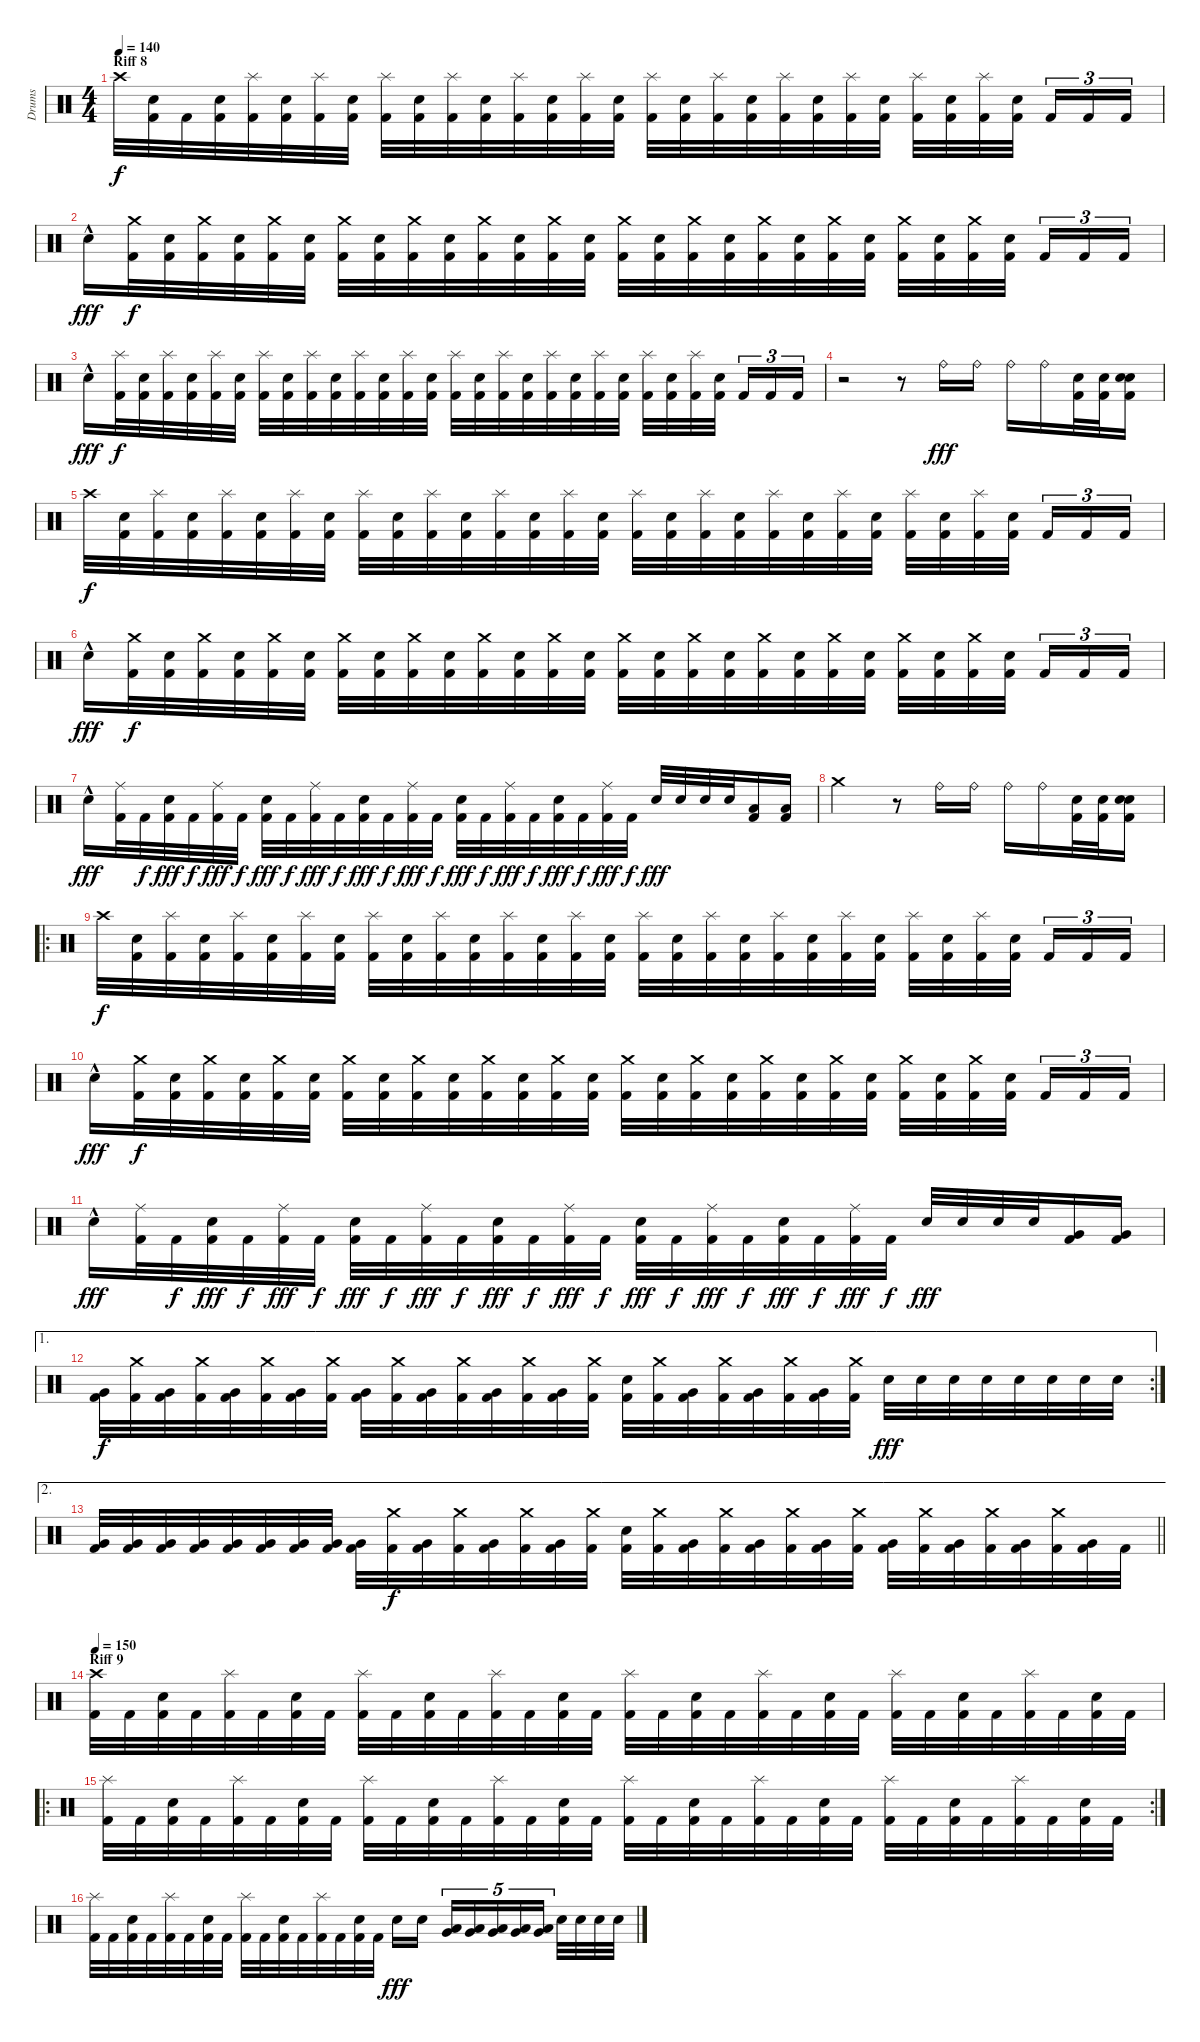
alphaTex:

\track ("Drums" "Drums") {instrument percussion}
\staff {score}
\articulation defaults
\ts (4 4)
\section ("" "Riff 8")
\tempo 140
\clef neutral
\ks c "Crash high (hit)".32{dy f}
("Electric Snare (hit)" "Kick (hit) 2").32 "Kick (hit) 2".32 ("Electric Snare (hit)" "Kick (hit) 2").32 ("Splash (hit)" "Kick (hit) 2").32 ("Electric Snare (hit)" "Kick (hit) 2").32 ("Splash (hit)" "Kick (hit) 2").32 ("Electric Snare (hit)" "Kick (hit) 2").32 ("Splash (hit)" "Kick (hit) 2").32 ("Electric Snare (hit)" "Kick (hit) 2").32 ("Splash (hit)" "Kick (hit) 2").32 ("Electric Snare (hit)" "Kick (hit) 2").32 ("Splash (hit)" "Kick (hit) 2").32 ("Electric Snare (hit)" "Kick (hit) 2").32 ("Splash (hit)" "Kick (hit) 2").32 ("Electric Snare (hit)" "Kick (hit) 2").32 ("Splash (hit)" "Kick (hit) 2").32 ("Electric Snare (hit)" "Kick (hit) 2").32 ("Splash (hit)" "Kick (hit) 2").32 ("Electric Snare (hit)" "Kick (hit) 2").32 ("Splash (hit)" "Kick (hit) 2").32 ("Electric Snare (hit)" "Kick (hit) 2").32 ("Splash (hit)" "Kick (hit) 2").32 ("Electric Snare (hit)" "Kick (hit) 2").32 ("Splash (hit)" "Kick (hit) 2").32 ("Electric Snare (hit)" "Kick (hit) 2").32 ("Splash (hit)" "Kick (hit) 2").32 ("Electric Snare (hit)" "Kick (hit) 2").32{beam splitsecondary} "Kick (hit) 2".16{tu (3 2)} "Kick (hit) 2".16{tu (3 2)} "Kick (hit) 2".16{tu (3 2)} |
"Electric Snare (hit)"{hac}.16{dy fff} ("Crash medium (hit)" "Kick (hit) 2").32{dy f} ("Electric Snare (hit)" "Kick (hit) 2").32 ("Crash medium (hit)" "Kick (hit) 2").32 ("Electric Snare (hit)" "Kick (hit) 2").32 ("Crash medium (hit)" "Kick (hit) 2").32 ("Electric Snare (hit)" "Kick (hit) 2").32 ("Crash medium (hit)" "Kick (hit) 2").32 ("Electric Snare (hit)" "Kick (hit) 2").32 ("Crash medium (hit)" "Kick (hit) 2").32 ("Electric Snare (hit)" "Kick (hit) 2").32 ("Crash medium (hit)" "Kick (hit) 2").32 ("Electric Snare (hit)" "Kick (hit) 2").32 ("Crash medium (hit)" "Kick (hit) 2").32 ("Electric Snare (hit)" "Kick (hit) 2").32 ("Crash medium (hit)" "Kick (hit) 2").32 ("Electric Snare (hit)" "Kick (hit) 2").32 ("Crash medium (hit)" "Kick (hit) 2").32 ("Electric Snare (hit)" "Kick (hit) 2").32 ("Crash medium (hit)" "Kick (hit) 2").32 ("Electric Snare (hit)" "Kick (hit) 2").32 ("Crash medium (hit)" "Kick (hit) 2").32 ("Electric Snare (hit)" "Kick (hit) 2").32 ("Crash medium (hit)" "Kick (hit) 2").32 ("Electric Snare (hit)" "Kick (hit) 2").32 ("Crash medium (hit)" "Kick (hit) 2").32 ("Electric Snare (hit)" "Kick (hit) 2").32{beam splitsecondary} "Kick (hit) 2".16{tu (3 2)} "Kick (hit) 2".16{tu (3 2)} "Kick (hit) 2".16{tu (3 2)} |
"Electric Snare (hit)"{hac}.16{dy fff} ("Splash (hit)" "Kick (hit) 2").32{dy f} ("Electric Snare (hit)" "Kick (hit) 2").32 ("Splash (hit)" "Kick (hit) 2").32 ("Electric Snare (hit)" "Kick (hit) 2").32 ("Splash (hit)" "Kick (hit) 2").32 ("Electric Snare (hit)" "Kick (hit) 2").32 ("Splash (hit)" "Kick (hit) 2").32 ("Electric Snare (hit)" "Kick (hit) 2").32 ("Splash (hit)" "Kick (hit) 2").32 ("Electric Snare (hit)" "Kick (hit) 2").32 ("Splash (hit)" "Kick (hit) 2").32 ("Electric Snare (hit)" "Kick (hit) 2").32 ("Splash (hit)" "Kick (hit) 2").32 ("Electric Snare (hit)" "Kick (hit) 2").32 ("Splash (hit)" "Kick (hit) 2").32 ("Electric Snare (hit)" "Kick (hit) 2").32 ("Splash (hit)" "Kick (hit) 2").32 ("Electric Snare (hit)" "Kick (hit) 2").32 ("Splash (hit)" "Kick (hit) 2").32 ("Electric Snare (hit)" "Kick (hit) 2").32 ("Splash (hit)" "Kick (hit) 2").32 ("Electric Snare (hit)" "Kick (hit) 2").32 ("Splash (hit)" "Kick (hit) 2").32 ("Electric Snare (hit)" "Kick (hit) 2").32 ("Splash (hit)" "Kick (hit) 2").32 ("Electric Snare (hit)" "Kick (hit) 2").32{beam splitsecondary} "Kick (hit) 2".16{tu (3 2)} "Kick (hit) 2".16{tu (3 2)} "Kick (hit) 2".16{tu (3 2)} |
r.2 r.8 "Ride (bell)".16{dy fff} "Ride (bell)".16 "Ride (bell)".16 "Ride (bell)".16 ("Electric Snare (hit)" "Kick (hit) 2").32 ("Electric Snare (hit)" "Kick (hit) 2").32 ("Electric Snare (hit)" "Electric Snare (hit)" "Kick (hit) 2").16 |
"Crash high (hit)".32{dy f} ("Electric Snare (hit)" "Kick (hit) 2").32 ("Splash (hit)" "Kick (hit) 2").32 ("Electric Snare (hit)" "Kick (hit) 2").32 ("Splash (hit)" "Kick (hit) 2").32 ("Electric Snare (hit)" "Kick (hit) 2").32 ("Splash (hit)" "Kick (hit) 2").32 ("Electric Snare (hit)" "Kick (hit) 2").32 ("Splash (hit)" "Kick (hit) 2").32 ("Electric Snare (hit)" "Kick (hit) 2").32 ("Splash (hit)" "Kick (hit) 2").32 ("Electric Snare (hit)" "Kick (hit) 2").32 ("Splash (hit)" "Kick (hit) 2").32 ("Electric Snare (hit)" "Kick (hit) 2").32 ("Splash (hit)" "Kick (hit) 2").32 ("Electric Snare (hit)" "Kick (hit) 2").32 ("Splash (hit)" "Kick (hit) 2").32 ("Electric Snare (hit)" "Kick (hit) 2").32 ("Splash (hit)" "Kick (hit) 2").32 ("Electric Snare (hit)" "Kick (hit) 2").32 ("Splash (hit)" "Kick (hit) 2").32 ("Electric Snare (hit)" "Kick (hit) 2").32 ("Splash (hit)" "Kick (hit) 2").32 ("Electric Snare (hit)" "Kick (hit) 2").32 ("Splash (hit)" "Kick (hit) 2").32 ("Electric Snare (hit)" "Kick (hit) 2").32 ("Splash (hit)" "Kick (hit) 2").32 ("Electric Snare (hit)" "Kick (hit) 2").32{beam splitsecondary} "Kick (hit) 2".16{tu (3 2)} "Kick (hit) 2".16{tu (3 2)} "Kick (hit) 2".16{tu (3 2)} |
"Electric Snare (hit)"{hac}.16{dy fff} ("Crash medium (hit)" "Kick (hit) 2").32{dy f} ("Electric Snare (hit)" "Kick (hit) 2").32 ("Crash medium (hit)" "Kick (hit) 2").32 ("Electric Snare (hit)" "Kick (hit) 2").32 ("Crash medium (hit)" "Kick (hit) 2").32 ("Electric Snare (hit)" "Kick (hit) 2").32 ("Crash medium (hit)" "Kick (hit) 2").32 ("Electric Snare (hit)" "Kick (hit) 2").32 ("Crash medium (hit)" "Kick (hit) 2").32 ("Electric Snare (hit)" "Kick (hit) 2").32 ("Crash medium (hit)" "Kick (hit) 2").32 ("Electric Snare (hit)" "Kick (hit) 2").32 ("Crash medium (hit)" "Kick (hit) 2").32 ("Electric Snare (hit)" "Kick (hit) 2").32 ("Crash medium (hit)" "Kick (hit) 2").32 ("Electric Snare (hit)" "Kick (hit) 2").32 ("Crash medium (hit)" "Kick (hit) 2").32 ("Electric Snare (hit)" "Kick (hit) 2").32 ("Crash medium (hit)" "Kick (hit) 2").32 ("Electric Snare (hit)" "Kick (hit) 2").32 ("Crash medium (hit)" "Kick (hit) 2").32 ("Electric Snare (hit)" "Kick (hit) 2").32 ("Crash medium (hit)" "Kick (hit) 2").32 ("Electric Snare (hit)" "Kick (hit) 2").32 ("Crash medium (hit)" "Kick (hit) 2").32 ("Electric Snare (hit)" "Kick (hit) 2").32{beam splitsecondary} "Kick (hit) 2".16{tu (3 2)} "Kick (hit) 2".16{tu (3 2)} "Kick (hit) 2".16{tu (3 2)} |
"Electric Snare (hit)"{hac}.16{dy fff} ("Ride (middle)" "Kick (hit) 2").32 "Kick (hit) 2".32{dy f} ("Electric Snare (hit)" "Kick (hit) 2").32{dy fff} "Kick (hit) 2".32{dy f} ("Ride (middle)" "Kick (hit) 2").32{dy fff} "Kick (hit) 2".32{dy f} ("Electric Snare (hit)" "Kick (hit) 2").32{dy fff} "Kick (hit) 2".32{dy f} ("Ride (middle)" "Kick (hit) 2").32{dy fff} "Kick (hit) 2".32{dy f} ("Electric Snare (hit)" "Kick (hit) 2").32{dy fff} "Kick (hit) 2".32{dy f} ("Ride (middle)" "Kick (hit) 2").32{dy fff} "Kick (hit) 2".32{dy f} ("Electric Snare (hit)" "Kick (hit) 2").32{dy fff} "Kick (hit) 2".32{dy f} ("Ride (middle)" "Kick (hit) 2").32{dy fff} "Kick (hit) 2".32{dy f} ("Electric Snare (hit)" "Kick (hit) 2").32{dy fff} "Kick (hit) 2".32{dy f} ("Ride (middle)" "Kick (hit) 2").32{dy fff} "Kick (hit) 2".32{dy f} "Electric Snare (hit)".32{dy fff} "Electric Snare (hit)".32 "Electric Snare (hit)".32 "Electric Snare (hit)".32 ("Low Tom (hit)" "Kick (hit) 2").16 ("Low Tom (hit)" "Kick (hit) 2").16 |
"Crash medium (hit)".2 r.8 "Ride (bell)".16 "Ride (bell)".16 "Ride (bell)".16 "Ride (bell)".16 ("Electric Snare (hit)" "Kick (hit) 2").32 ("Electric Snare (hit)" "Kick (hit) 2").32 ("Electric Snare (hit)" "Electric Snare (hit)" "Kick (hit) 2").16 |
\ro "Crash high (hit)".32{dy f}
("Electric Snare (hit)" "Kick (hit) 2").32 ("Splash (hit)" "Kick (hit) 2").32 ("Electric Snare (hit)" "Kick (hit) 2").32 ("Splash (hit)" "Kick (hit) 2").32 ("Electric Snare (hit)" "Kick (hit) 2").32 ("Splash (hit)" "Kick (hit) 2").32 ("Electric Snare (hit)" "Kick (hit) 2").32 ("Splash (hit)" "Kick (hit) 2").32 ("Electric Snare (hit)" "Kick (hit) 2").32 ("Splash (hit)" "Kick (hit) 2").32 ("Electric Snare (hit)" "Kick (hit) 2").32 ("Splash (hit)" "Kick (hit) 2").32 ("Electric Snare (hit)" "Kick (hit) 2").32 ("Splash (hit)" "Kick (hit) 2").32 ("Electric Snare (hit)" "Kick (hit) 2").32 ("Splash (hit)" "Kick (hit) 2").32 ("Electric Snare (hit)" "Kick (hit) 2").32 ("Splash (hit)" "Kick (hit) 2").32 ("Electric Snare (hit)" "Kick (hit) 2").32 ("Splash (hit)" "Kick (hit) 2").32 ("Electric Snare (hit)" "Kick (hit) 2").32 ("Splash (hit)" "Kick (hit) 2").32 ("Electric Snare (hit)" "Kick (hit) 2").32 ("Splash (hit)" "Kick (hit) 2").32 ("Electric Snare (hit)" "Kick (hit) 2").32 ("Splash (hit)" "Kick (hit) 2").32 ("Electric Snare (hit)" "Kick (hit) 2").32{beam splitsecondary} "Kick (hit) 2".16{tu (3 2)} "Kick (hit) 2".16{tu (3 2)} "Kick (hit) 2".16{tu (3 2)} |
"Electric Snare (hit)"{hac}.16{dy fff} ("Crash medium (hit)" "Kick (hit) 2").32{dy f} ("Electric Snare (hit)" "Kick (hit) 2").32 ("Crash medium (hit)" "Kick (hit) 2").32 ("Electric Snare (hit)" "Kick (hit) 2").32 ("Crash medium (hit)" "Kick (hit) 2").32 ("Electric Snare (hit)" "Kick (hit) 2").32 ("Crash medium (hit)" "Kick (hit) 2").32 ("Electric Snare (hit)" "Kick (hit) 2").32 ("Crash medium (hit)" "Kick (hit) 2").32 ("Electric Snare (hit)" "Kick (hit) 2").32 ("Crash medium (hit)" "Kick (hit) 2").32 ("Electric Snare (hit)" "Kick (hit) 2").32 ("Crash medium (hit)" "Kick (hit) 2").32 ("Electric Snare (hit)" "Kick (hit) 2").32 ("Crash medium (hit)" "Kick (hit) 2").32 ("Electric Snare (hit)" "Kick (hit) 2").32 ("Crash medium (hit)" "Kick (hit) 2").32 ("Electric Snare (hit)" "Kick (hit) 2").32 ("Crash medium (hit)" "Kick (hit) 2").32 ("Electric Snare (hit)" "Kick (hit) 2").32 ("Crash medium (hit)" "Kick (hit) 2").32 ("Electric Snare (hit)" "Kick (hit) 2").32 ("Crash medium (hit)" "Kick (hit) 2").32 ("Electric Snare (hit)" "Kick (hit) 2").32 ("Crash medium (hit)" "Kick (hit) 2").32 ("Electric Snare (hit)" "Kick (hit) 2").32{beam splitsecondary} "Kick (hit) 2".16{tu (3 2)} "Kick (hit) 2".16{tu (3 2)} "Kick (hit) 2".16{tu (3 2)} |
"Electric Snare (hit)"{hac}.16{dy fff} ("Ride (middle)" "Kick (hit) 2").32 "Kick (hit) 2".32{dy f} ("Electric Snare (hit)" "Kick (hit) 2").32{dy fff} "Kick (hit) 2".32{dy f} ("Ride (middle)" "Kick (hit) 2").32{dy fff} "Kick (hit) 2".32{dy f} ("Electric Snare (hit)" "Kick (hit) 2").32{dy fff} "Kick (hit) 2".32{dy f} ("Ride (middle)" "Kick (hit) 2").32{dy fff} "Kick (hit) 2".32{dy f} ("Electric Snare (hit)" "Kick (hit) 2").32{dy fff} "Kick (hit) 2".32{dy f} ("Ride (middle)" "Kick (hit) 2").32{dy fff} "Kick (hit) 2".32{dy f} ("Electric Snare (hit)" "Kick (hit) 2").32{dy fff} "Kick (hit) 2".32{dy f} ("Ride (middle)" "Kick (hit) 2").32{dy fff} "Kick (hit) 2".32{dy f} ("Electric Snare (hit)" "Kick (hit) 2").32{dy fff} "Kick (hit) 2".32{dy f} ("Ride (middle)" "Kick (hit) 2").32{dy fff} "Kick (hit) 2".32{dy f} "Electric Snare (hit)".32{dy fff} "Electric Snare (hit)".32 "Electric Snare (hit)".32 "Electric Snare (hit)".32 ("Very Low Tom (hit)" "Kick (hit) 2").16 ("Very Low Tom (hit)" "Kick (hit) 2").16 |
\ae 1
\rc 2
("Very Low Tom (hit)" "Kick (hit) 2").32{dy f} ("Crash medium (hit)" "Kick (hit) 2").32 ("Very Low Tom (hit)" "Kick (hit) 2").32 ("Crash medium (hit)" "Kick (hit) 2").32 ("Very Low Tom (hit)" "Kick (hit) 2").32 ("Crash medium (hit)" "Kick (hit) 2").32 ("Very Low Tom (hit)" "Kick (hit) 2").32 ("Crash medium (hit)" "Kick (hit) 2").32 ("Very Low Tom (hit)" "Kick (hit) 2").32 ("Crash medium (hit)" "Kick (hit) 2").32 ("Very Low Tom (hit)" "Kick (hit) 2").32 ("Crash medium (hit)" "Kick (hit) 2").32 ("Very Low Tom (hit)" "Kick (hit) 2").32 ("Crash medium (hit)" "Kick (hit) 2").32 ("Very Low Tom (hit)" "Kick (hit) 2").32 ("Crash medium (hit)" "Kick (hit) 2").32 ("Electric Snare (hit)" "Kick (hit) 2").32 ("Crash medium (hit)" "Kick (hit) 2").32 ("Very Low Tom (hit)" "Kick (hit) 2").32 ("Crash medium (hit)" "Kick (hit) 2").32 ("Very Low Tom (hit)" "Kick (hit) 2").32 ("Crash medium (hit)" "Kick (hit) 2").32 ("Very Low Tom (hit)" "Kick (hit) 2").32 ("Crash medium (hit)" "Kick (hit) 2").32 "Electric Snare (hit)".32{dy fff} "Electric Snare (hit)".32 "Electric Snare (hit)".32 "Electric Snare (hit)".32 "Electric Snare (hit)".32 "Electric Snare (hit)".32 "Electric Snare (hit)".32 "Electric Snare (hit)".32 |
\ae 2
\barLineRight lightlight
("Very Low Tom (hit)" "Kick (hit) 2").32 ("Very Low Tom (hit)" "Kick (hit) 2").32 ("Very Low Tom (hit)" "Kick (hit) 2").32 ("Very Low Tom (hit)" "Kick (hit) 2").32 ("Very Low Tom (hit)" "Kick (hit) 2").32 ("Very Low Tom (hit)" "Kick (hit) 2").32 ("Very Low Tom (hit)" "Kick (hit) 2").32 ("Very Low Tom (hit)" "Kick (hit) 2").32 ("Very Low Tom (hit)" "Kick (hit) 2").32 ("Crash medium (hit)" "Kick (hit) 2").32{dy f} ("Very Low Tom (hit)" "Kick (hit) 2").32 ("Crash medium (hit)" "Kick (hit) 2").32 ("Very Low Tom (hit)" "Kick (hit) 2").32 ("Crash medium (hit)" "Kick (hit) 2").32 ("Very Low Tom (hit)" "Kick (hit) 2").32 ("Crash medium (hit)" "Kick (hit) 2").32 ("Electric Snare (hit)" "Kick (hit) 2").32 ("Crash medium (hit)" "Kick (hit) 2").32 ("Very Low Tom (hit)" "Kick (hit) 2").32 ("Crash medium (hit)" "Kick (hit) 2").32 ("Very Low Tom (hit)" "Kick (hit) 2").32 ("Crash medium (hit)" "Kick (hit) 2").32 ("Very Low Tom (hit)" "Kick (hit) 2").32 ("Crash medium (hit)" "Kick (hit) 2").32 ("Very Low Tom (hit)" "Kick (hit) 2").32 ("Crash medium (hit)" "Kick (hit) 2").32 ("Very Low Tom (hit)" "Kick (hit) 2").32 ("Crash medium (hit)" "Kick (hit) 2").32 ("Very Low Tom (hit)" "Kick (hit) 2").32 ("Crash medium (hit)" "Kick (hit) 2").32 ("Very Low Tom (hit)" "Kick (hit) 2").32 "Kick (hit) 2".32 |
\section ("" "Riff 9")
\tempo 150
("Crash high (hit)" "Kick (hit) 2").32 "Kick (hit) 2".32 ("Electric Snare (hit)" "Kick (hit) 2").32 "Kick (hit) 2".32 ("Splash (hit)" "Kick (hit) 2").32 "Kick (hit) 2".32 ("Electric Snare (hit)" "Kick (hit) 2").32 "Kick (hit) 2".32 ("Splash (hit)" "Kick (hit) 2").32 "Kick (hit) 2".32 ("Electric Snare (hit)" "Kick (hit) 2").32 "Kick (hit) 2".32 ("Splash (hit)" "Kick (hit) 2").32 "Kick (hit) 2".32 ("Electric Snare (hit)" "Kick (hit) 2").32 "Kick (hit) 2".32 ("Splash (hit)" "Kick (hit) 2").32 "Kick (hit) 2".32 ("Electric Snare (hit)" "Kick (hit) 2").32 "Kick (hit) 2".32 ("Splash (hit)" "Kick (hit) 2").32 "Kick (hit) 2".32 ("Electric Snare (hit)" "Kick (hit) 2").32 "Kick (hit) 2".32 ("Splash (hit)" "Kick (hit) 2").32 "Kick (hit) 2".32 ("Electric Snare (hit)" "Kick (hit) 2").32 "Kick (hit) 2".32 ("Splash (hit)" "Kick (hit) 2").32 "Kick (hit) 2".32 ("Electric Snare (hit)" "Kick (hit) 2").32 "Kick (hit) 2".32 |
\ro
\rc 2
("Splash (hit)" "Kick (hit) 2").32 "Kick (hit) 2".32 ("Electric Snare (hit)" "Kick (hit) 2").32 "Kick (hit) 2".32 ("Splash (hit)" "Kick (hit) 2").32 "Kick (hit) 2".32 ("Electric Snare (hit)" "Kick (hit) 2").32 "Kick (hit) 2".32 ("Splash (hit)" "Kick (hit) 2").32 "Kick (hit) 2".32 ("Electric Snare (hit)" "Kick (hit) 2").32 "Kick (hit) 2".32 ("Splash (hit)" "Kick (hit) 2").32 "Kick (hit) 2".32 ("Electric Snare (hit)" "Kick (hit) 2").32 "Kick (hit) 2".32 ("Splash (hit)" "Kick (hit) 2").32 "Kick (hit) 2".32 ("Electric Snare (hit)" "Kick (hit) 2").32 "Kick (hit) 2".32 ("Splash (hit)" "Kick (hit) 2").32 "Kick (hit) 2".32 ("Electric Snare (hit)" "Kick (hit) 2").32 "Kick (hit) 2".32 ("Splash (hit)" "Kick (hit) 2").32 "Kick (hit) 2".32 ("Electric Snare (hit)" "Kick (hit) 2").32 "Kick (hit) 2".32 ("Splash (hit)" "Kick (hit) 2").32 "Kick (hit) 2".32 ("Electric Snare (hit)" "Kick (hit) 2").32 "Kick (hit) 2".32 |
("Splash (hit)" "Kick (hit) 2").32 "Kick (hit) 2".32 ("Electric Snare (hit)" "Kick (hit) 2").32 "Kick (hit) 2".32 ("Splash (hit)" "Kick (hit) 2").32 "Kick (hit) 2".32 ("Electric Snare (hit)" "Kick (hit) 2").32 "Kick (hit) 2".32 ("Splash (hit)" "Kick (hit) 2").32 "Kick (hit) 2".32 ("Electric Snare (hit)" "Kick (hit) 2").32 "Kick (hit) 2".32 ("Splash (hit)" "Kick (hit) 2").32 "Kick (hit) 2".32 ("Electric Snare (hit)" "Kick (hit) 2").32 "Kick (hit) 2".32 "Electric Snare (hit)".16{dy fff} "Electric Snare (hit)".16{beam splitsecondary} ("Low Tom (hit)" "Very Low Tom (hit)").16{tu (5 4)} ("Low Tom (hit)" "Very Low Tom (hit)").16{tu (5 4)} ("Low Tom (hit)" "Very Low Tom (hit)").16{tu (5 4)} ("Low Tom (hit)" "Very Low Tom (hit)").16{tu (5 4)} ("Low Tom (hit)" "Very Low Tom (hit)").16{tu (5 4) beam splitsecondary} "Electric Snare (hit)".32 "Electric Snare (hit)".32 "Electric Snare (hit)".32 "Electric Snare (hit)".32
